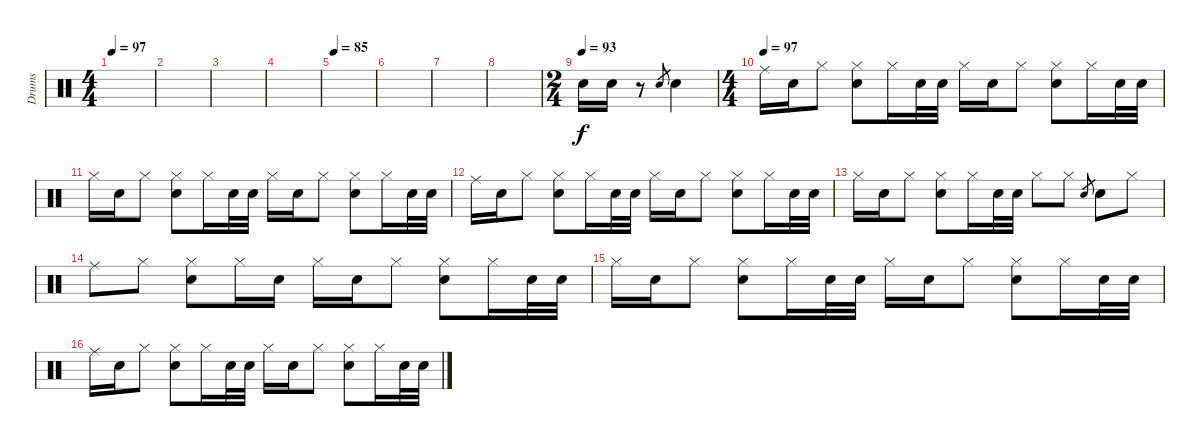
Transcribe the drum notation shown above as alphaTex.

\track ("Drums" "Drums") {instrument percussion}
\staff {score}
\articulation defaults
\ts (4 4)
\tempo 97
\tempo 85
\tempo 97
\clef neutral
\ks c
|
|
|
|
\tempo 85
|
|
|
|
\ts (2 4)
\tempo (93)
"Snare (hit) 2".16 "Snare (hit) 2".16 r.8 "Snare (hit) 2".8{gr} "Snare (hit) 2".4 |
\ts (4 4)
\tempo (97)
"Ride (middle)".16 "Snare (hit) 2".16 "Hi-Hat (closed)".8 ("Hi-Hat (closed)" "Snare (hit) 2").8 "Hi-Hat (closed)".16 "Snare (hit) 2".32 "Snare (hit) 2".32 "Hi-Hat (closed)".16 "Snare (hit) 2".16 "Hi-Hat (closed)".8 ("Hi-Hat (closed)" "Snare (hit) 2").8 "Hi-Hat (closed)".16 "Snare (hit) 2".32 "Snare (hit) 2".32 |
"Hi-Hat (closed)".16 "Snare (hit) 2".16 "Hi-Hat (closed)".8 ("Hi-Hat (closed)" "Snare (hit) 2").8 "Hi-Hat (closed)".16 "Snare (hit) 2".32 "Snare (hit) 2".32 "Hi-Hat (closed)".16 "Snare (hit) 2".16 "Hi-Hat (closed)".8 ("Hi-Hat (closed)" "Snare (hit) 2").8 "Hi-Hat (closed)".16 "Snare (hit) 2".32 "Snare (hit) 2".32 |
"Ride (middle)".16 "Snare (hit) 2".16 "Hi-Hat (closed)".8 ("Hi-Hat (closed)" "Snare (hit) 2").8 "Hi-Hat (closed)".16 "Snare (hit) 2".32 "Snare (hit) 2".32 "Hi-Hat (closed)".16 "Snare (hit) 2".16 "Hi-Hat (closed)".8 ("Hi-Hat (closed)" "Snare (hit) 2").8 "Hi-Hat (closed)".16 "Snare (hit) 2".32 "Snare (hit) 2".32 |
"Hi-Hat (closed)".16 "Snare (hit) 2".16 "Hi-Hat (closed)".8 ("Hi-Hat (closed)" "Snare (hit) 2").8 "Hi-Hat (closed)".16 "Snare (hit) 2".32 "Snare (hit) 2".32 "Hi-Hat (closed)".8 "Hi-Hat (closed)".8 "Snare (hit) 2".8{gr} "Snare (hit) 2".8 "Hi-Hat (closed)".8 |
"Ride (middle)".8 "Hi-Hat (closed)".8 ("Hi-Hat (closed)" "Snare (hit) 2").8 "Hi-Hat (closed)".16 "Snare (hit) 2".16 "Hi-Hat (closed)".16 "Snare (hit) 2".16 "Hi-Hat (closed)".8 ("Hi-Hat (closed)" "Snare (hit) 2").8 "Hi-Hat (closed)".16 "Snare (hit) 2".32 "Snare (hit) 2".32 |
"Hi-Hat (closed)".16 "Snare (hit) 2".16 "Hi-Hat (closed)".8 ("Hi-Hat (closed)" "Snare (hit) 2").8 "Hi-Hat (closed)".16 "Snare (hit) 2".32 "Snare (hit) 2".32 "Hi-Hat (closed)".16 "Snare (hit) 2".16 "Hi-Hat (closed)".8 ("Hi-Hat (closed)" "Snare (hit) 2").8 "Hi-Hat (closed)".16 "Snare (hit) 2".32 "Snare (hit) 2".32 |
"Ride (middle)".16 "Snare (hit) 2".16 "Hi-Hat (closed)".8 ("Hi-Hat (closed)" "Snare (hit) 2").8 "Hi-Hat (closed)".16 "Snare (hit) 2".32 "Snare (hit) 2".32 "Hi-Hat (closed)".16 "Snare (hit) 2".16 "Hi-Hat (closed)".8 ("Hi-Hat (closed)" "Snare (hit) 2").8 "Hi-Hat (closed)".16 "Snare (hit) 2".32 "Snare (hit) 2".32
